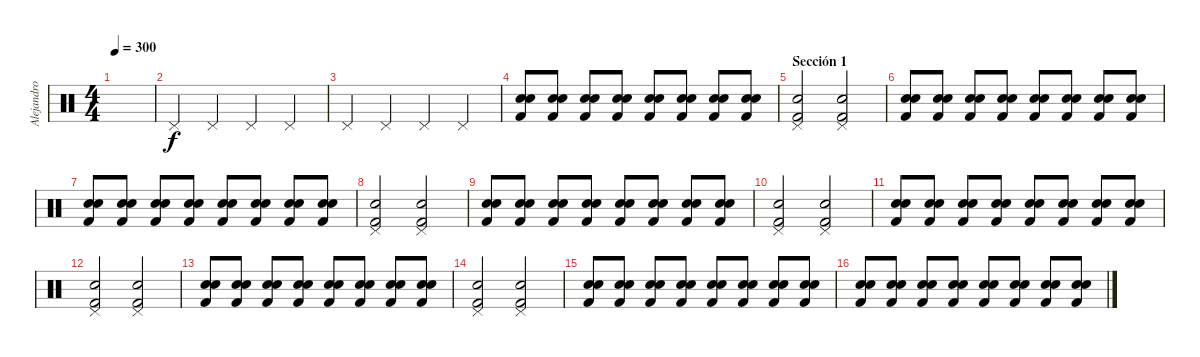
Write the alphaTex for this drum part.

\track ("Alejandro" "Alejandro") {instrument percussion}
\staff {score}
\articulation defaults
\ts (4 4)
\tempo 300
\clef neutral
\ks c
|
"Pedal Hi-Hat (hit)".4 "Pedal Hi-Hat (hit)".4 "Pedal Hi-Hat (hit)".4 "Pedal Hi-Hat (hit)".4 |
"Pedal Hi-Hat (hit)".4 "Pedal Hi-Hat (hit)".4 "Pedal Hi-Hat (hit)".4 "Pedal Hi-Hat (hit)".4 |
("Snare (hit) 2" "Electric Snare (hit)" "Kick (hit) 2").8 ("Snare (hit) 2" "Electric Snare (hit)" "Kick (hit) 2").8 ("Snare (hit) 2" "Electric Snare (hit)" "Kick (hit) 2").8 ("Snare (hit) 2" "Electric Snare (hit)" "Kick (hit) 2").8 ("Snare (hit) 2" "Electric Snare (hit)" "Kick (hit) 2").8 ("Snare (hit) 2" "Electric Snare (hit)" "Kick (hit) 2").8 ("Snare (hit) 2" "Electric Snare (hit)" "Kick (hit) 2").8 ("Snare (hit) 2" "Electric Snare (hit)" "Kick (hit) 2").8 |
\section ("" "Sección 1")
("Pedal Hi-Hat (hit)" "Electric Snare (hit)" "Kick (hit) 2").2 ("Pedal Hi-Hat (hit)" "Electric Snare (hit)" "Kick (hit) 2").2 |
("Snare (hit) 2" "Electric Snare (hit)" "Kick (hit) 2").8 ("Snare (hit) 2" "Electric Snare (hit)" "Kick (hit) 2").8 ("Snare (hit) 2" "Electric Snare (hit)" "Kick (hit) 2").8 ("Snare (hit) 2" "Electric Snare (hit)" "Kick (hit) 2").8 ("Snare (hit) 2" "Electric Snare (hit)" "Kick (hit) 2").8 ("Snare (hit) 2" "Electric Snare (hit)" "Kick (hit) 2").8 ("Snare (hit) 2" "Electric Snare (hit)" "Kick (hit) 2").8 ("Snare (hit) 2" "Electric Snare (hit)" "Kick (hit) 2").8 |
("Snare (hit) 2" "Electric Snare (hit)" "Kick (hit) 2").8 ("Snare (hit) 2" "Electric Snare (hit)" "Kick (hit) 2").8 ("Snare (hit) 2" "Electric Snare (hit)" "Kick (hit) 2").8 ("Snare (hit) 2" "Electric Snare (hit)" "Kick (hit) 2").8 ("Snare (hit) 2" "Electric Snare (hit)" "Kick (hit) 2").8 ("Snare (hit) 2" "Electric Snare (hit)" "Kick (hit) 2").8 ("Snare (hit) 2" "Electric Snare (hit)" "Kick (hit) 2").8 ("Snare (hit) 2" "Electric Snare (hit)" "Kick (hit) 2").8 |
("Pedal Hi-Hat (hit)" "Electric Snare (hit)" "Kick (hit) 2").2 ("Pedal Hi-Hat (hit)" "Electric Snare (hit)" "Kick (hit) 2").2 |
("Snare (hit) 2" "Electric Snare (hit)" "Kick (hit) 2").8 ("Snare (hit) 2" "Electric Snare (hit)" "Kick (hit) 2").8 ("Snare (hit) 2" "Electric Snare (hit)" "Kick (hit) 2").8 ("Snare (hit) 2" "Electric Snare (hit)" "Kick (hit) 2").8 ("Snare (hit) 2" "Electric Snare (hit)" "Kick (hit) 2").8 ("Snare (hit) 2" "Electric Snare (hit)" "Kick (hit) 2").8 ("Snare (hit) 2" "Electric Snare (hit)" "Kick (hit) 2").8 ("Snare (hit) 2" "Electric Snare (hit)" "Kick (hit) 2").8 |
("Pedal Hi-Hat (hit)" "Electric Snare (hit)" "Kick (hit) 2").2 ("Pedal Hi-Hat (hit)" "Electric Snare (hit)" "Kick (hit) 2").2 |
("Snare (hit) 2" "Electric Snare (hit)" "Kick (hit) 2").8 ("Snare (hit) 2" "Electric Snare (hit)" "Kick (hit) 2").8 ("Snare (hit) 2" "Electric Snare (hit)" "Kick (hit) 2").8 ("Snare (hit) 2" "Electric Snare (hit)" "Kick (hit) 2").8 ("Snare (hit) 2" "Electric Snare (hit)" "Kick (hit) 2").8 ("Snare (hit) 2" "Electric Snare (hit)" "Kick (hit) 2").8 ("Snare (hit) 2" "Electric Snare (hit)" "Kick (hit) 2").8 ("Snare (hit) 2" "Electric Snare (hit)" "Kick (hit) 2").8 |
("Pedal Hi-Hat (hit)" "Electric Snare (hit)" "Kick (hit) 2").2 ("Pedal Hi-Hat (hit)" "Electric Snare (hit)" "Kick (hit) 2").2 |
("Snare (hit) 2" "Electric Snare (hit)" "Kick (hit) 2").8 ("Snare (hit) 2" "Electric Snare (hit)" "Kick (hit) 2").8 ("Snare (hit) 2" "Electric Snare (hit)" "Kick (hit) 2").8 ("Snare (hit) 2" "Electric Snare (hit)" "Kick (hit) 2").8 ("Snare (hit) 2" "Electric Snare (hit)" "Kick (hit) 2").8 ("Snare (hit) 2" "Electric Snare (hit)" "Kick (hit) 2").8 ("Snare (hit) 2" "Electric Snare (hit)" "Kick (hit) 2").8 ("Snare (hit) 2" "Electric Snare (hit)" "Kick (hit) 2").8 |
("Pedal Hi-Hat (hit)" "Electric Snare (hit)" "Kick (hit) 2").2 ("Pedal Hi-Hat (hit)" "Electric Snare (hit)" "Kick (hit) 2").2 |
("Snare (hit) 2" "Electric Snare (hit)" "Kick (hit) 2").8 ("Snare (hit) 2" "Electric Snare (hit)" "Kick (hit) 2").8 ("Snare (hit) 2" "Electric Snare (hit)" "Kick (hit) 2").8 ("Snare (hit) 2" "Electric Snare (hit)" "Kick (hit) 2").8 ("Snare (hit) 2" "Electric Snare (hit)" "Kick (hit) 2").8 ("Snare (hit) 2" "Electric Snare (hit)" "Kick (hit) 2").8 ("Snare (hit) 2" "Electric Snare (hit)" "Kick (hit) 2").8 ("Snare (hit) 2" "Electric Snare (hit)" "Kick (hit) 2").8 |
("Snare (hit) 2" "Electric Snare (hit)" "Kick (hit) 2").8 ("Snare (hit) 2" "Electric Snare (hit)" "Kick (hit) 2").8 ("Snare (hit) 2" "Electric Snare (hit)" "Kick (hit) 2").8 ("Snare (hit) 2" "Electric Snare (hit)" "Kick (hit) 2").8 ("Snare (hit) 2" "Electric Snare (hit)" "Kick (hit) 2").8 ("Snare (hit) 2" "Electric Snare (hit)" "Kick (hit) 2").8 ("Snare (hit) 2" "Electric Snare (hit)" "Kick (hit) 2").8 ("Snare (hit) 2" "Electric Snare (hit)" "Kick (hit) 2").8
